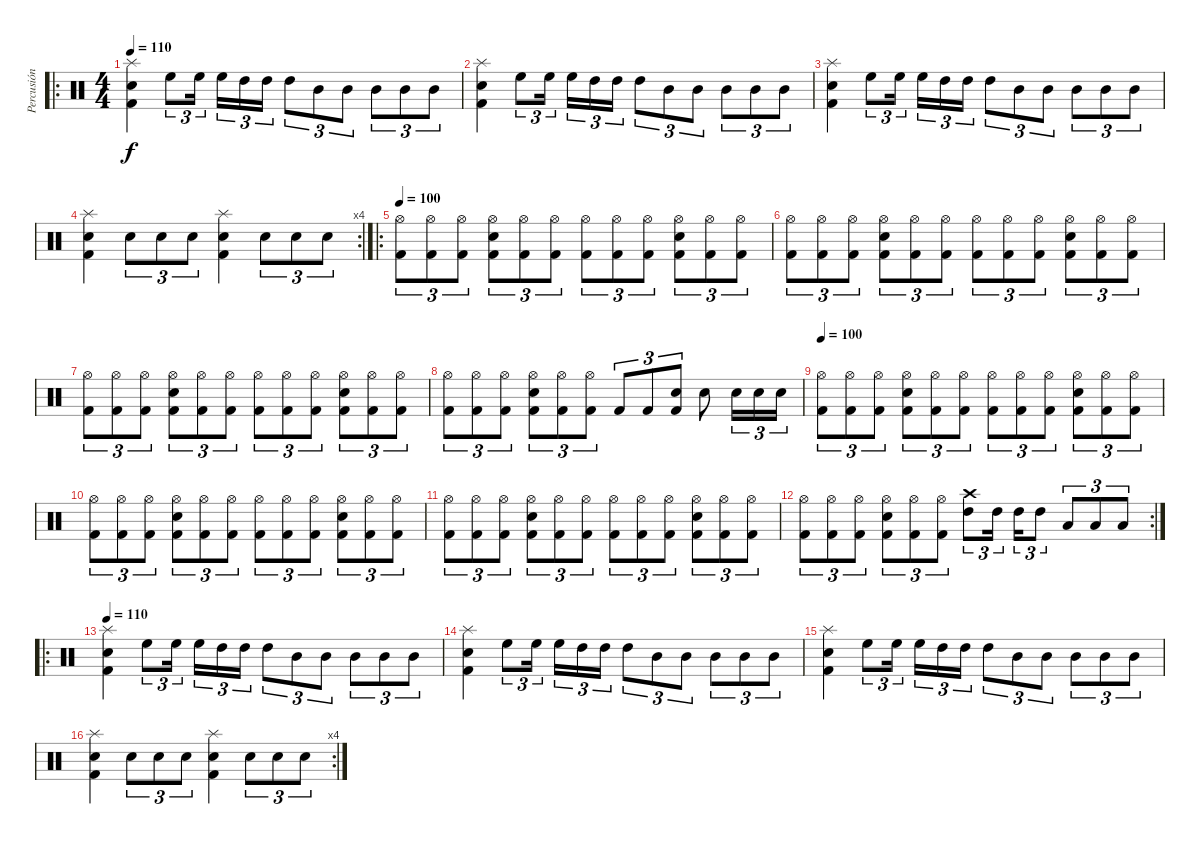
\track ("Percusión" "Percusión") {instrument percussion}
\staff {score}
\articulation defaults
\ro
\ts (4 4)
\tempo 110
\clef neutral
\ks c
("Splash (hit)" "Snare (hit) 2" "Kick (hit) 2").4{dy f} "High Floor Tom (hit)".8{tu (3 2)} "High Floor Tom (hit)".16{tu (3 2) beam splitsecondary} "High Floor Tom (hit)".16{tu (3 2)} "High Tom (hit)".16{tu (3 2)} "High Tom (hit)".16{tu (3 2)} "High Tom (hit)".8{tu (3 2)} "Mid Tom (hit)".8{tu (3 2)} "Mid Tom (hit)".8{tu (3 2)} "Mid Tom (hit)".8{tu (3 2)} "Mid Tom (hit)".8{tu (3 2)} "Mid Tom (hit)".8{tu (3 2)} |
("Splash (hit)" "Snare (hit) 2" "Kick (hit) 2").4 "High Floor Tom (hit)".8{tu (3 2)} "High Floor Tom (hit)".16{tu (3 2) beam splitsecondary} "High Floor Tom (hit)".16{tu (3 2)} "High Tom (hit)".16{tu (3 2)} "High Tom (hit)".16{tu (3 2)} "High Tom (hit)".8{tu (3 2)} "Mid Tom (hit)".8{tu (3 2)} "Mid Tom (hit)".8{tu (3 2)} "Mid Tom (hit)".8{tu (3 2)} "Mid Tom (hit)".8{tu (3 2)} "Mid Tom (hit)".8{tu (3 2)} |
("Splash (hit)" "Snare (hit) 2" "Kick (hit) 2").4 "High Floor Tom (hit)".8{tu (3 2)} "High Floor Tom (hit)".16{tu (3 2) beam splitsecondary} "High Floor Tom (hit)".16{tu (3 2)} "High Tom (hit)".16{tu (3 2)} "High Tom (hit)".16{tu (3 2)} "High Tom (hit)".8{tu (3 2)} "Mid Tom (hit)".8{tu (3 2)} "Mid Tom (hit)".8{tu (3 2)} "Mid Tom (hit)".8{tu (3 2)} "Mid Tom (hit)".8{tu (3 2)} "Mid Tom (hit)".8{tu (3 2)} |
\rc 4
("Splash (hit)" "Snare (hit) 2" "Kick (hit) 2").4 "Snare (hit) 2".8{tu (3 2)} "Snare (hit) 2".8{tu (3 2)} "Snare (hit) 2".8{tu (3 2)} ("Splash (hit)" "Snare (hit) 2" "Kick (hit) 2").4 "Snare (hit) 2".8{tu (3 2)} "Snare (hit) 2".8{tu (3 2)} "Snare (hit) 2".8{tu (3 2)} |
\ro
\tempo 100
("Hi-Hat (open)" "Kick (hit) 2").8{tu (3 2)} ("Hi-Hat (open)" "Kick (hit) 2").8{tu (3 2)} ("Hi-Hat (open)" "Kick (hit) 2").8{tu (3 2)} ("Hi-Hat (open)" "Snare (hit) 2" "Kick (hit) 2").8{tu (3 2)} ("Hi-Hat (open)" "Kick (hit) 2").8{tu (3 2)} ("Hi-Hat (open)" "Kick (hit) 2").8{tu (3 2)} ("Hi-Hat (open)" "Kick (hit) 2").8{tu (3 2)} ("Hi-Hat (open)" "Kick (hit) 2").8{tu (3 2)} ("Hi-Hat (open)" "Kick (hit) 2").8{tu (3 2)} ("Hi-Hat (open)" "Snare (hit) 2" "Kick (hit) 2").8{tu (3 2)} ("Hi-Hat (open)" "Kick (hit) 2").8{tu (3 2)} ("Hi-Hat (open)" "Kick (hit) 2").8{tu (3 2)} |
("Hi-Hat (open)" "Kick (hit) 2").8{tu (3 2)} ("Hi-Hat (open)" "Kick (hit) 2").8{tu (3 2)} ("Hi-Hat (open)" "Kick (hit) 2").8{tu (3 2)} ("Hi-Hat (open)" "Snare (hit) 2" "Kick (hit) 2").8{tu (3 2)} ("Hi-Hat (open)" "Kick (hit) 2").8{tu (3 2)} ("Hi-Hat (open)" "Kick (hit) 2").8{tu (3 2)} ("Hi-Hat (open)" "Kick (hit) 2").8{tu (3 2)} ("Hi-Hat (open)" "Kick (hit) 2").8{tu (3 2)} ("Hi-Hat (open)" "Kick (hit) 2").8{tu (3 2)} ("Hi-Hat (open)" "Snare (hit) 2" "Kick (hit) 2").8{tu (3 2)} ("Hi-Hat (open)" "Kick (hit) 2").8{tu (3 2)} ("Hi-Hat (open)" "Kick (hit) 2").8{tu (3 2)} |
("Hi-Hat (open)" "Kick (hit) 2").8{tu (3 2)} ("Hi-Hat (open)" "Kick (hit) 2").8{tu (3 2)} ("Hi-Hat (open)" "Kick (hit) 2").8{tu (3 2)} ("Hi-Hat (open)" "Snare (hit) 2" "Kick (hit) 2").8{tu (3 2)} ("Hi-Hat (open)" "Kick (hit) 2").8{tu (3 2)} ("Hi-Hat (open)" "Kick (hit) 2").8{tu (3 2)} ("Hi-Hat (open)" "Kick (hit) 2").8{tu (3 2)} ("Hi-Hat (open)" "Kick (hit) 2").8{tu (3 2)} ("Hi-Hat (open)" "Kick (hit) 2").8{tu (3 2)} ("Hi-Hat (open)" "Snare (hit) 2" "Kick (hit) 2").8{tu (3 2)} ("Hi-Hat (open)" "Kick (hit) 2").8{tu (3 2)} ("Hi-Hat (open)" "Kick (hit) 2").8{tu (3 2)} |
("Hi-Hat (open)" "Kick (hit) 2").8{tu (3 2)} ("Hi-Hat (open)" "Kick (hit) 2").8{tu (3 2)} ("Hi-Hat (open)" "Kick (hit) 2").8{tu (3 2)} ("Hi-Hat (open)" "Snare (hit) 2" "Kick (hit) 2").8{tu (3 2)} ("Hi-Hat (open)" "Kick (hit) 2").8{tu (3 2)} ("Hi-Hat (open)" "Kick (hit) 2").8{tu (3 2)} "Kick (hit) 2".8{tu (3 2)} "Kick (hit) 2".8{tu (3 2)} ("Snare (hit) 2" "Kick (hit) 2").8{tu (3 2)} "Snare (hit) 2".8 "Snare (hit) 2".16{tu (3 2)} "Snare (hit) 2".16{tu (3 2)} "Snare (hit) 2".16{tu (3 2)} |
\tempo 100
("Hi-Hat (open)" "Kick (hit) 2").8{tu (3 2)} ("Hi-Hat (open)" "Kick (hit) 2").8{tu (3 2)} ("Hi-Hat (open)" "Kick (hit) 2").8{tu (3 2)} ("Hi-Hat (open)" "Snare (hit) 2" "Kick (hit) 2").8{tu (3 2)} ("Hi-Hat (open)" "Kick (hit) 2").8{tu (3 2)} ("Hi-Hat (open)" "Kick (hit) 2").8{tu (3 2)} ("Hi-Hat (open)" "Kick (hit) 2").8{tu (3 2)} ("Hi-Hat (open)" "Kick (hit) 2").8{tu (3 2)} ("Hi-Hat (open)" "Kick (hit) 2").8{tu (3 2)} ("Hi-Hat (open)" "Snare (hit) 2" "Kick (hit) 2").8{tu (3 2)} ("Hi-Hat (open)" "Kick (hit) 2").8{tu (3 2)} ("Hi-Hat (open)" "Kick (hit) 2").8{tu (3 2)} |
("Hi-Hat (open)" "Kick (hit) 2").8{tu (3 2)} ("Hi-Hat (open)" "Kick (hit) 2").8{tu (3 2)} ("Hi-Hat (open)" "Kick (hit) 2").8{tu (3 2)} ("Hi-Hat (open)" "Snare (hit) 2" "Kick (hit) 2").8{tu (3 2)} ("Hi-Hat (open)" "Kick (hit) 2").8{tu (3 2)} ("Hi-Hat (open)" "Kick (hit) 2").8{tu (3 2)} ("Hi-Hat (open)" "Kick (hit) 2").8{tu (3 2)} ("Hi-Hat (open)" "Kick (hit) 2").8{tu (3 2)} ("Hi-Hat (open)" "Kick (hit) 2").8{tu (3 2)} ("Hi-Hat (open)" "Snare (hit) 2" "Kick (hit) 2").8{tu (3 2)} ("Hi-Hat (open)" "Kick (hit) 2").8{tu (3 2)} ("Hi-Hat (open)" "Kick (hit) 2").8{tu (3 2)} |
("Hi-Hat (open)" "Kick (hit) 2").8{tu (3 2)} ("Hi-Hat (open)" "Kick (hit) 2").8{tu (3 2)} ("Hi-Hat (open)" "Kick (hit) 2").8{tu (3 2)} ("Hi-Hat (open)" "Snare (hit) 2" "Kick (hit) 2").8{tu (3 2)} ("Hi-Hat (open)" "Kick (hit) 2").8{tu (3 2)} ("Hi-Hat (open)" "Kick (hit) 2").8{tu (3 2)} ("Hi-Hat (open)" "Kick (hit) 2").8{tu (3 2)} ("Hi-Hat (open)" "Kick (hit) 2").8{tu (3 2)} ("Hi-Hat (open)" "Kick (hit) 2").8{tu (3 2)} ("Hi-Hat (open)" "Snare (hit) 2" "Kick (hit) 2").8{tu (3 2)} ("Hi-Hat (open)" "Kick (hit) 2").8{tu (3 2)} ("Hi-Hat (open)" "Kick (hit) 2").8{tu (3 2)} |
\rc 2
("Hi-Hat (open)" "Kick (hit) 2").8{tu (3 2)} ("Hi-Hat (open)" "Kick (hit) 2").8{tu (3 2)} ("Hi-Hat (open)" "Kick (hit) 2").8{tu (3 2)} ("Hi-Hat (open)" "Snare (hit) 2" "Kick (hit) 2").8{tu (3 2)} ("Hi-Hat (open)" "Kick (hit) 2").8{tu (3 2)} ("Hi-Hat (open)" "Kick (hit) 2").8{tu (3 2)} ("Crash high (hit)" "High Tom (hit)").8{tu (3 2)} "High Tom (hit)".16{tu (3 2) beam splitsecondary} "High Tom (hit)".16{tu (3 2)} "High Tom (hit)".8{tu (3 2)} "Low Tom (hit)".8{tu (3 2)} "Low Tom (hit)".8{tu (3 2)} "Low Floor Tom (hit)".8{tu (3 2)} |
\ro
\tempo 110
("Splash (hit)" "Snare (hit) 2" "Kick (hit) 2").4 "High Floor Tom (hit)".8{tu (3 2)} "High Floor Tom (hit)".16{tu (3 2) beam splitsecondary} "High Floor Tom (hit)".16{tu (3 2)} "High Tom (hit)".16{tu (3 2)} "High Tom (hit)".16{tu (3 2)} "High Tom (hit)".8{tu (3 2)} "Mid Tom (hit)".8{tu (3 2)} "Mid Tom (hit)".8{tu (3 2)} "Mid Tom (hit)".8{tu (3 2)} "Mid Tom (hit)".8{tu (3 2)} "Mid Tom (hit)".8{tu (3 2)} |
("Splash (hit)" "Snare (hit) 2" "Kick (hit) 2").4 "High Floor Tom (hit)".8{tu (3 2)} "High Floor Tom (hit)".16{tu (3 2) beam splitsecondary} "High Floor Tom (hit)".16{tu (3 2)} "High Tom (hit)".16{tu (3 2)} "High Tom (hit)".16{tu (3 2)} "High Tom (hit)".8{tu (3 2)} "Mid Tom (hit)".8{tu (3 2)} "Mid Tom (hit)".8{tu (3 2)} "Mid Tom (hit)".8{tu (3 2)} "Mid Tom (hit)".8{tu (3 2)} "Mid Tom (hit)".8{tu (3 2)} |
("Splash (hit)" "Snare (hit) 2" "Kick (hit) 2").4 "High Floor Tom (hit)".8{tu (3 2)} "High Floor Tom (hit)".16{tu (3 2) beam splitsecondary} "High Floor Tom (hit)".16{tu (3 2)} "High Tom (hit)".16{tu (3 2)} "High Tom (hit)".16{tu (3 2)} "High Tom (hit)".8{tu (3 2)} "Mid Tom (hit)".8{tu (3 2)} "Mid Tom (hit)".8{tu (3 2)} "Mid Tom (hit)".8{tu (3 2)} "Mid Tom (hit)".8{tu (3 2)} "Mid Tom (hit)".8{tu (3 2)} |
\rc 4
("Splash (hit)" "Snare (hit) 2" "Kick (hit) 2").4 "Snare (hit) 2".8{tu (3 2)} "Snare (hit) 2".8{tu (3 2)} "Snare (hit) 2".8{tu (3 2)} ("Splash (hit)" "Snare (hit) 2" "Kick (hit) 2").4 "Snare (hit) 2".8{tu (3 2)} "Snare (hit) 2".8{tu (3 2)} "Snare (hit) 2".8{tu (3 2)}
